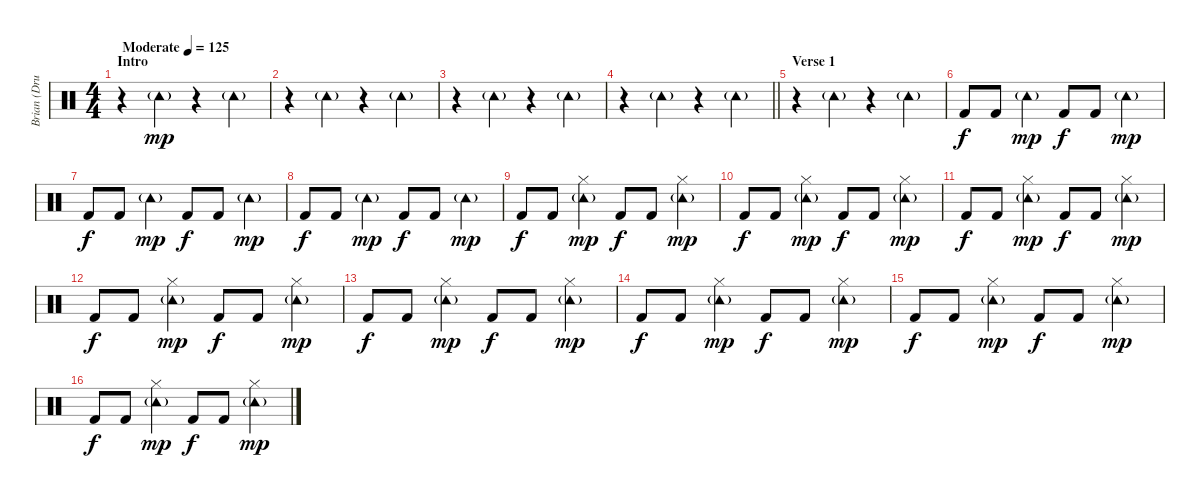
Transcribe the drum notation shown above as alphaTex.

\track ("Brian (Drums)" "Brian (Dru") {instrument percussion}
\staff {score}
\articulation defaults
\ts (4 4)
\section ("" "Intro")
\tempo (125 "Moderate")
\clef neutral
\ks c
r.4{dy mp} "Tambourine (hit)"{g}.4 r.4 "Tambourine (hit)"{g}.4 |
r.4 "Tambourine (hit)"{g}.4 r.4 "Tambourine (hit)"{g}.4 |
r.4 "Tambourine (hit)"{g}.4 r.4 "Tambourine (hit)"{g}.4 |
\barLineRight lightlight
r.4 "Tambourine (hit)"{g}.4 r.4 "Tambourine (hit)"{g}.4 |
\section ("" "Verse 1")
r.4 "Tambourine (hit)"{g}.4 r.4 "Tambourine (hit)"{g}.4 |
"Kick (hit) 2".8{dy f} "Kick (hit) 2".8 "Tambourine (hit)"{g}.4{dy mp} "Kick (hit) 2".8{dy f} "Kick (hit) 2".8 "Tambourine (hit)"{g}.4{dy mp} |
"Kick (hit) 2".8{dy f} "Kick (hit) 2".8 "Tambourine (hit)"{g}.4{dy mp} "Kick (hit) 2".8{dy f} "Kick (hit) 2".8 "Tambourine (hit)"{g}.4{dy mp} |
"Kick (hit) 2".8{dy f} "Kick (hit) 2".8 "Tambourine (hit)"{g}.4{dy mp} "Kick (hit) 2".8{dy f} "Kick (hit) 2".8 "Tambourine (hit)"{g}.4{dy mp} |
"Kick (hit) 2".8{dy f} "Kick (hit) 2".8 ("Tambourine (hit)"{g} "Hi-Hat (closed)").4{dy mp} "Kick (hit) 2".8{dy f} "Kick (hit) 2".8 ("Tambourine (hit)"{g} "Hi-Hat (closed)").4{dy mp} |
"Kick (hit) 2".8{dy f} "Kick (hit) 2".8 ("Tambourine (hit)"{g} "Hi-Hat (closed)").4{dy mp} "Kick (hit) 2".8{dy f} "Kick (hit) 2".8 ("Tambourine (hit)"{g} "Hi-Hat (closed)").4{dy mp} |
"Kick (hit) 2".8{dy f} "Kick (hit) 2".8 ("Tambourine (hit)"{g} "Hi-Hat (closed)").4{dy mp} "Kick (hit) 2".8{dy f} "Kick (hit) 2".8 ("Tambourine (hit)"{g} "Hi-Hat (closed)").4{dy mp} |
"Kick (hit) 2".8{dy f} "Kick (hit) 2".8 ("Tambourine (hit)"{g} "Hi-Hat (closed)").4{dy mp} "Kick (hit) 2".8{dy f} "Kick (hit) 2".8 ("Tambourine (hit)"{g} "Hi-Hat (closed)").4{dy mp} |
"Kick (hit) 2".8{dy f} "Kick (hit) 2".8 ("Tambourine (hit)"{g} "Hi-Hat (closed)").4{dy mp} "Kick (hit) 2".8{dy f} "Kick (hit) 2".8 ("Tambourine (hit)"{g} "Hi-Hat (closed)").4{dy mp} |
"Kick (hit) 2".8{dy f} "Kick (hit) 2".8 ("Tambourine (hit)"{g} "Hi-Hat (closed)").4{dy mp} "Kick (hit) 2".8{dy f} "Kick (hit) 2".8 ("Tambourine (hit)"{g} "Hi-Hat (closed)").4{dy mp} |
"Kick (hit) 2".8{dy f} "Kick (hit) 2".8 ("Tambourine (hit)"{g} "Hi-Hat (closed)").4{dy mp} "Kick (hit) 2".8{dy f} "Kick (hit) 2".8 ("Tambourine (hit)"{g} "Hi-Hat (closed)").4{dy mp} |
"Kick (hit) 2".8{dy f} "Kick (hit) 2".8 ("Tambourine (hit)"{g} "Hi-Hat (closed)").4{dy mp} "Kick (hit) 2".8{dy f} "Kick (hit) 2".8 ("Tambourine (hit)"{g} "Hi-Hat (closed)").4{dy mp}
